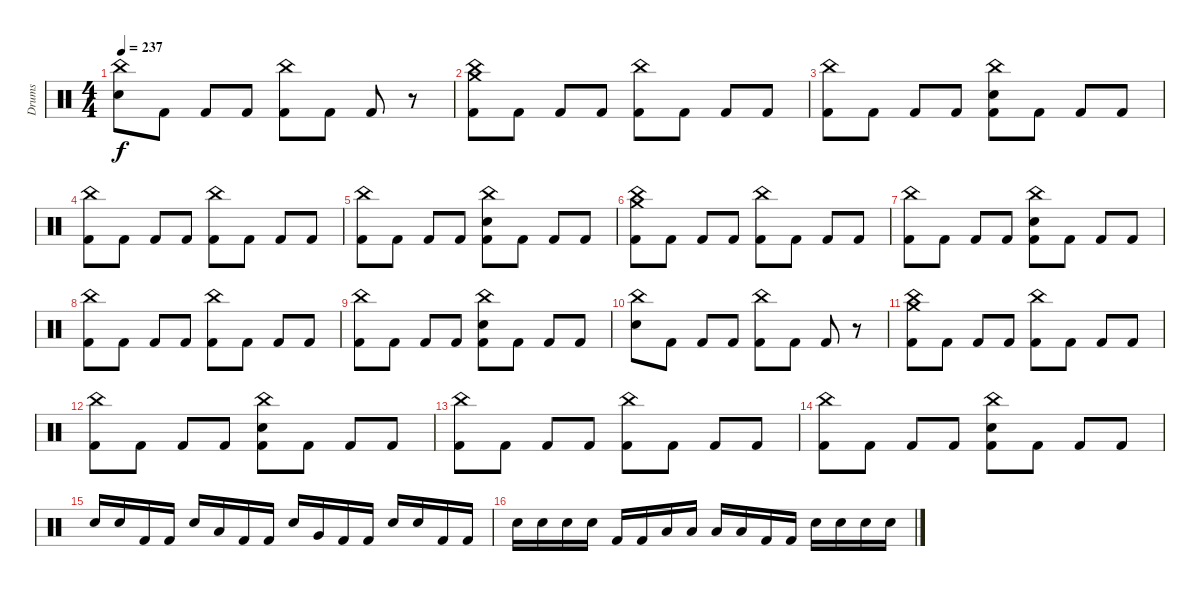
\track ("Drums" "Drums") {instrument percussion}
\staff {score}
\articulation defaults
\ts (4 4)
\tempo 237
\clef neutral
\ks c
("China (hit)" "Electric Snare (hit)").8{dy f} "Kick (hit) 2".8 "Kick (hit) 2".8 "Kick (hit) 2".8 ("China (hit)" "Kick (hit) 2").8 "Kick (hit) 2".8 "Kick (hit) 2".8 r.8 |
("Crash medium (hit)" "China (hit)" "Kick (hit) 2").8 "Kick (hit) 2".8 "Kick (hit) 2".8 "Kick (hit) 2".8 ("China (hit)" "Kick (hit) 2").8 "Kick (hit) 2".8 "Kick (hit) 2".8 "Kick (hit) 2".8 |
("China (hit)" "Kick (hit) 2").8 "Kick (hit) 2".8 "Kick (hit) 2".8 "Kick (hit) 2".8 ("China (hit)" "Electric Snare (hit)" "Kick (hit) 2").8 "Kick (hit) 2".8 "Kick (hit) 2".8 "Kick (hit) 2".8 |
("China (hit)" "Kick (hit) 2").8 "Kick (hit) 2".8 "Kick (hit) 2".8 "Kick (hit) 2".8 ("China (hit)" "Kick (hit) 2").8 "Kick (hit) 2".8 "Kick (hit) 2".8 "Kick (hit) 2".8 |
("China (hit)" "Kick (hit) 2").8 "Kick (hit) 2".8 "Kick (hit) 2".8 "Kick (hit) 2".8 ("China (hit)" "Electric Snare (hit)" "Kick (hit) 2").8 "Kick (hit) 2".8 "Kick (hit) 2".8 "Kick (hit) 2".8 |
("Crash medium (hit)" "China (hit)" "Kick (hit) 2").8 "Kick (hit) 2".8 "Kick (hit) 2".8 "Kick (hit) 2".8 ("China (hit)" "Kick (hit) 2").8 "Kick (hit) 2".8 "Kick (hit) 2".8 "Kick (hit) 2".8 |
("China (hit)" "Kick (hit) 2").8 "Kick (hit) 2".8 "Kick (hit) 2".8 "Kick (hit) 2".8 ("China (hit)" "Electric Snare (hit)" "Kick (hit) 2").8 "Kick (hit) 2".8 "Kick (hit) 2".8 "Kick (hit) 2".8 |
("China (hit)" "Kick (hit) 2").8 "Kick (hit) 2".8 "Kick (hit) 2".8 "Kick (hit) 2".8 ("China (hit)" "Kick (hit) 2").8 "Kick (hit) 2".8 "Kick (hit) 2".8 "Kick (hit) 2".8 |
("China (hit)" "Kick (hit) 2").8 "Kick (hit) 2".8 "Kick (hit) 2".8 "Kick (hit) 2".8 ("China (hit)" "Electric Snare (hit)" "Kick (hit) 2").8 "Kick (hit) 2".8 "Kick (hit) 2".8 "Kick (hit) 2".8 |
("China (hit)" "Electric Snare (hit)").8 "Kick (hit) 2".8 "Kick (hit) 2".8 "Kick (hit) 2".8 ("China (hit)" "Kick (hit) 2").8 "Kick (hit) 2".8 "Kick (hit) 2".8 r.8 |
("Crash medium (hit)" "China (hit)" "Kick (hit) 2").8 "Kick (hit) 2".8 "Kick (hit) 2".8 "Kick (hit) 2".8 ("China (hit)" "Kick (hit) 2").8 "Kick (hit) 2".8 "Kick (hit) 2".8 "Kick (hit) 2".8 |
("China (hit)" "Kick (hit) 2").8 "Kick (hit) 2".8 "Kick (hit) 2".8 "Kick (hit) 2".8 ("China (hit)" "Electric Snare (hit)" "Kick (hit) 2").8 "Kick (hit) 2".8 "Kick (hit) 2".8 "Kick (hit) 2".8 |
("China (hit)" "Kick (hit) 2").8 "Kick (hit) 2".8 "Kick (hit) 2".8 "Kick (hit) 2".8 ("China (hit)" "Kick (hit) 2").8 "Kick (hit) 2".8 "Kick (hit) 2".8 "Kick (hit) 2".8 |
("China (hit)" "Kick (hit) 2").8 "Kick (hit) 2".8 "Kick (hit) 2".8 "Kick (hit) 2".8 ("China (hit)" "Electric Snare (hit)" "Kick (hit) 2").8 "Kick (hit) 2".8 "Kick (hit) 2".8 "Kick (hit) 2".8 |
"Electric Snare (hit)".16 "Electric Snare (hit)".16 "Kick (hit) 2".16 "Kick (hit) 2".16 "Electric Snare (hit)".16 "Low Tom (hit)".16 "Kick (hit) 2".16 "Kick (hit) 2".16 "Electric Snare (hit)".16 "Very Low Tom (hit)".16 "Kick (hit) 2".16 "Kick (hit) 2".16 "Electric Snare (hit)".16 "Electric Snare (hit)".16 "Kick (hit) 2".16 "Kick (hit) 2".16 |
"Electric Snare (hit)".16 "Electric Snare (hit)".16 "Electric Snare (hit)".16 "Electric Snare (hit)".16 "Kick (hit) 2".16 "Kick (hit) 2".16 "Low Tom (hit)".16 "Low Tom (hit)".16 "Low Tom (hit)".16 "Low Tom (hit)".16 "Kick (hit) 2".16 "Kick (hit) 2".16 "Electric Snare (hit)".16 "Electric Snare (hit)".16 "Electric Snare (hit)".16 "Electric Snare (hit)".16
